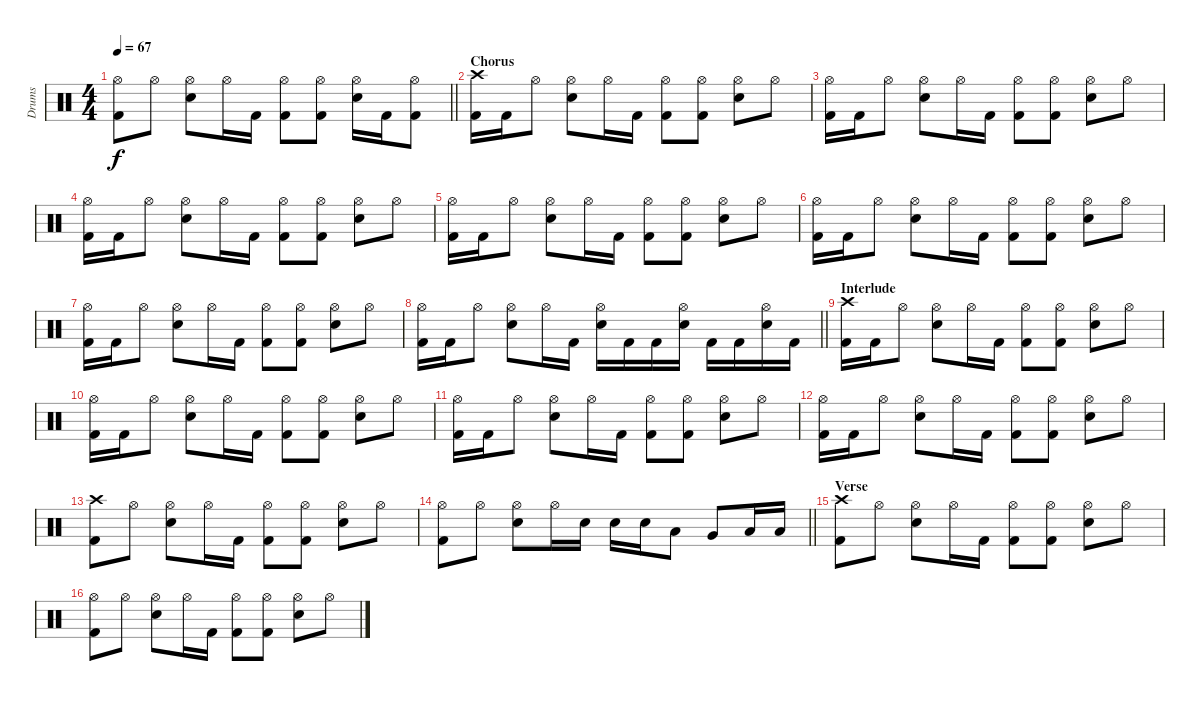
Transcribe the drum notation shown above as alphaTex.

\track ("Drums" "Drums") {instrument percussion}
\staff {score}
\articulation defaults
\ts (4 4)
\tempo 67
\clef neutral
\barLineRight lightlight
\ks c
("Hi-Hat (open)" "Kick (hit) 2").8{dy f} "Hi-Hat (open)".8 ("Hi-Hat (open)" "Snare (hit) 2").8 "Hi-Hat (open)".16 "Kick (hit) 2".16 ("Hi-Hat (open)" "Kick (hit) 2").8 ("Kick (hit) 2" "Hi-Hat (open)").8 ("Hi-Hat (open)" "Snare (hit) 2").16 "Kick (hit) 2".16 ("Kick (hit) 2" "Hi-Hat (open)").8 |
\section ("" "Chorus")
("Crash high (hit)" "Kick (hit) 2").16 "Kick (hit) 2".16 "Hi-Hat (open)".8 ("Hi-Hat (open)" "Snare (hit) 2").8 "Hi-Hat (open)".16 "Kick (hit) 2".16 ("Hi-Hat (open)" "Kick (hit) 2").8 ("Kick (hit) 2" "Hi-Hat (open)").8 ("Hi-Hat (open)" "Snare (hit) 2").8 "Hi-Hat (open)".8 |
("Hi-Hat (open)" "Kick (hit) 2").16 "Kick (hit) 2".16 "Hi-Hat (open)".8 ("Hi-Hat (open)" "Snare (hit) 2").8 "Hi-Hat (open)".16 "Kick (hit) 2".16 ("Hi-Hat (open)" "Kick (hit) 2").8 ("Kick (hit) 2" "Hi-Hat (open)").8 ("Hi-Hat (open)" "Snare (hit) 2").8 "Hi-Hat (open)".8 |
("Hi-Hat (open)" "Kick (hit) 2").16 "Kick (hit) 2".16 "Hi-Hat (open)".8 ("Hi-Hat (open)" "Snare (hit) 2").8 "Hi-Hat (open)".16 "Kick (hit) 2".16 ("Hi-Hat (open)" "Kick (hit) 2").8 ("Kick (hit) 2" "Hi-Hat (open)").8 ("Hi-Hat (open)" "Snare (hit) 2").8 "Hi-Hat (open)".8 |
("Hi-Hat (open)" "Kick (hit) 2").16 "Kick (hit) 2".16 "Hi-Hat (open)".8 ("Hi-Hat (open)" "Snare (hit) 2").8 "Hi-Hat (open)".16 "Kick (hit) 2".16 ("Hi-Hat (open)" "Kick (hit) 2").8 ("Kick (hit) 2" "Hi-Hat (open)").8 ("Hi-Hat (open)" "Snare (hit) 2").8 "Hi-Hat (open)".8 |
("Hi-Hat (open)" "Kick (hit) 2").16 "Kick (hit) 2".16 "Hi-Hat (open)".8 ("Hi-Hat (open)" "Snare (hit) 2").8 "Hi-Hat (open)".16 "Kick (hit) 2".16 ("Hi-Hat (open)" "Kick (hit) 2").8 ("Kick (hit) 2" "Hi-Hat (open)").8 ("Hi-Hat (open)" "Snare (hit) 2").8 "Hi-Hat (open)".8 |
("Hi-Hat (open)" "Kick (hit) 2").16 "Kick (hit) 2".16 "Hi-Hat (open)".8 ("Hi-Hat (open)" "Snare (hit) 2").8 "Hi-Hat (open)".16 "Kick (hit) 2".16 ("Hi-Hat (open)" "Kick (hit) 2").8 ("Kick (hit) 2" "Hi-Hat (open)").8 ("Hi-Hat (open)" "Snare (hit) 2").8 "Hi-Hat (open)".8 |
\barLineRight lightlight
("Hi-Hat (open)" "Kick (hit) 2").16 "Kick (hit) 2".16 "Hi-Hat (open)".8 ("Hi-Hat (open)" "Snare (hit) 2").8 "Hi-Hat (open)".16 "Kick (hit) 2".16 ("Snare (hit) 2" "Hi-Hat (open)").16 "Kick (hit) 2".16 "Kick (hit) 2".16 ("Snare (hit) 2" "Hi-Hat (open)").16 "Kick (hit) 2".16 "Kick (hit) 2".16 ("Snare (hit) 2" "Hi-Hat (open)").16 "Kick (hit) 2".16 |
\section ("" "Interlude")
("Crash high (hit)" "Kick (hit) 2").16 "Kick (hit) 2".16 "Hi-Hat (open)".8 ("Hi-Hat (open)" "Snare (hit) 2").8 "Hi-Hat (open)".16 "Kick (hit) 2".16 ("Hi-Hat (open)" "Kick (hit) 2").8 ("Kick (hit) 2" "Hi-Hat (open)").8 ("Hi-Hat (open)" "Snare (hit) 2").8 "Hi-Hat (open)".8 |
("Hi-Hat (open)" "Kick (hit) 2").16 "Kick (hit) 2".16 "Hi-Hat (open)".8 ("Hi-Hat (open)" "Snare (hit) 2").8 "Hi-Hat (open)".16 "Kick (hit) 2".16 ("Hi-Hat (open)" "Kick (hit) 2").8 ("Kick (hit) 2" "Hi-Hat (open)").8 ("Hi-Hat (open)" "Snare (hit) 2").8 "Hi-Hat (open)".8 |
("Hi-Hat (open)" "Kick (hit) 2").16 "Kick (hit) 2".16 "Hi-Hat (open)".8 ("Hi-Hat (open)" "Snare (hit) 2").8 "Hi-Hat (open)".16 "Kick (hit) 2".16 ("Hi-Hat (open)" "Kick (hit) 2").8 ("Kick (hit) 2" "Hi-Hat (open)").8 ("Hi-Hat (open)" "Snare (hit) 2").8 "Hi-Hat (open)".8 |
("Hi-Hat (open)" "Kick (hit) 2").16 "Kick (hit) 2".16 "Hi-Hat (open)".8 ("Hi-Hat (open)" "Snare (hit) 2").8 "Hi-Hat (open)".16 "Kick (hit) 2".16 ("Hi-Hat (open)" "Kick (hit) 2").8 ("Kick (hit) 2" "Hi-Hat (open)").8 ("Hi-Hat (open)" "Snare (hit) 2").8 "Hi-Hat (open)".8 |
("Crash high (hit)" "Kick (hit) 2").8 "Hi-Hat (open)".8 ("Hi-Hat (open)" "Snare (hit) 2").8 "Hi-Hat (open)".16 "Kick (hit) 2".16 ("Kick (hit) 2" "Hi-Hat (open)").8 ("Kick (hit) 2" "Hi-Hat (open)").8 ("Snare (hit) 2" "Hi-Hat (open)").8 "Hi-Hat (open)".8 |
\barLineRight lightlight
("Hi-Hat (open)" "Kick (hit) 2").8 "Hi-Hat (open)".8 ("Hi-Hat (open)" "Snare (hit) 2").8 "Hi-Hat (open)".16 "Snare (hit) 2".16 "Snare (hit) 2".16 "Snare (hit) 2".16 "Low Tom (hit)".8 "Very Low Tom (hit)".8 "Low Floor Tom (hit)".16 "Low Floor Tom (hit)".16 |
\section ("" "Verse")
("Crash high (hit)" "Kick (hit) 2").8 "Hi-Hat (open)".8 ("Hi-Hat (open)" "Snare (hit) 2").8 "Hi-Hat (open)".16 "Kick (hit) 2".16 ("Hi-Hat (open)" "Kick (hit) 2").8 ("Kick (hit) 2" "Hi-Hat (open)").8 ("Hi-Hat (open)" "Snare (hit) 2").8 "Hi-Hat (open)".8 |
("Hi-Hat (open)" "Kick (hit) 2").8 "Hi-Hat (open)".8 ("Hi-Hat (open)" "Snare (hit) 2").8 "Hi-Hat (open)".16 "Kick (hit) 2".16 ("Hi-Hat (open)" "Kick (hit) 2").8 ("Kick (hit) 2" "Hi-Hat (open)").8 ("Hi-Hat (open)" "Snare (hit) 2").8 "Hi-Hat (open)".8
